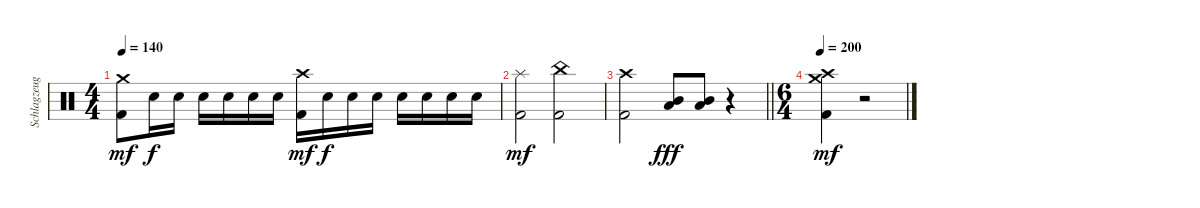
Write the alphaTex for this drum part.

\track ("Schlagzeug" "Schlagzeug") {instrument percussion}
\staff {score}
\articulation defaults
\ts (4 4)
\tempo 140
\clef neutral
\ks c
("Crash medium (hit)" "Kick (hit) 2").8{dy mf} "Electric Snare (hit)".16{dy f} "Electric Snare (hit)".16 "Electric Snare (hit)".16 "Electric Snare (hit)".16 "Electric Snare (hit)".16 "Electric Snare (hit)".16 ("Crash high (hit)" "Kick (hit) 2").16{dy mf} "Electric Snare (hit)".16{dy f} "Electric Snare (hit)".16 "Electric Snare (hit)".16 "Electric Snare (hit)".16 "Electric Snare (hit)".16 "Electric Snare (hit)".16 "Electric Snare (hit)".16 |
("Splash (hit)" "Kick (hit) 2").2{dy mf} ("China (hit)" "Kick (hit) 2").2 |
\barLineRight lightlight
("Crash high (hit)" "Kick (hit) 2").2 ("Mid Tom (hit)" "Low Tom (hit)").8{dy fff} ("Mid Tom (hit)" "Low Tom (hit)").8 r.4 |
\ts (6 4)
\section ("" "")
\tempo 200
("Crash medium (hit)" "Crash high (hit)" "Kick (hit) 2").4{dy mf} r.2
